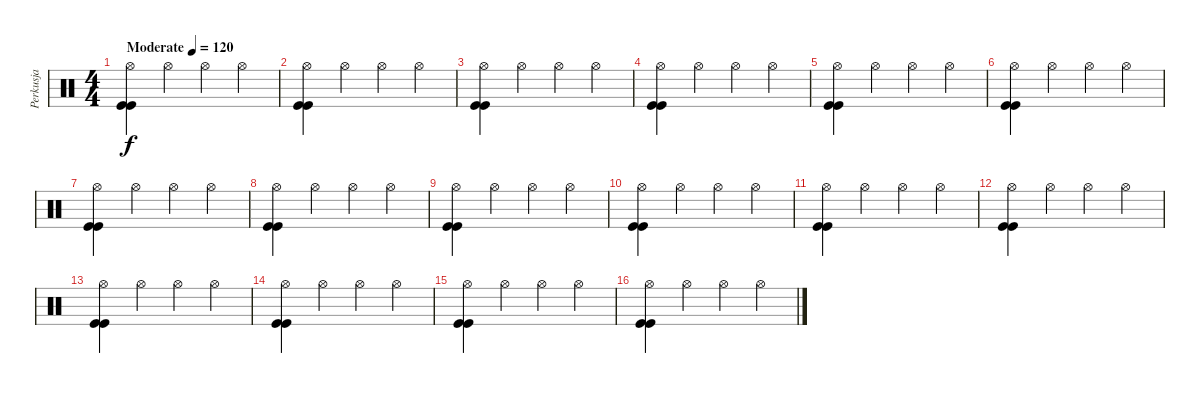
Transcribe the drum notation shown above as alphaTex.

\track ("Perkusja" "Perkusja") {instrument percussion}
\staff
\articulation defaults
\ts (4 4)
\tempo (120 "Moderate")
\clef neutral
\ks c
("Hi-Hat (open)" "Kick (hit)" "Kick (hit)").4{dy f} "Hi-Hat (open)".4 "Hi-Hat (open)".4 "Hi-Hat (open)".4 |
("Hi-Hat (open)" "Kick (hit)" "Kick (hit)").4 "Hi-Hat (open)".4 "Hi-Hat (open)".4 "Hi-Hat (open)".4 |
("Hi-Hat (open)" "Kick (hit)" "Kick (hit)").4 "Hi-Hat (open)".4 "Hi-Hat (open)".4 "Hi-Hat (open)".4 |
("Hi-Hat (open)" "Kick (hit)" "Kick (hit)").4 "Hi-Hat (open)".4 "Hi-Hat (open)".4 "Hi-Hat (open)".4 |
("Hi-Hat (open)" "Kick (hit)" "Kick (hit)").4 "Hi-Hat (open)".4 "Hi-Hat (open)".4 "Hi-Hat (open)".4 |
("Hi-Hat (open)" "Kick (hit)" "Kick (hit)").4 "Hi-Hat (open)".4 "Hi-Hat (open)".4 "Hi-Hat (open)".4 |
("Hi-Hat (open)" "Kick (hit)" "Kick (hit)").4 "Hi-Hat (open)".4 "Hi-Hat (open)".4 "Hi-Hat (open)".4 |
("Hi-Hat (open)" "Kick (hit)" "Kick (hit)").4 "Hi-Hat (open)".4 "Hi-Hat (open)".4 "Hi-Hat (open)".4 |
("Hi-Hat (open)" "Kick (hit)" "Kick (hit)").4 "Hi-Hat (open)".4 "Hi-Hat (open)".4 "Hi-Hat (open)".4 |
("Hi-Hat (open)" "Kick (hit)" "Kick (hit)").4 "Hi-Hat (open)".4 "Hi-Hat (open)".4 "Hi-Hat (open)".4 |
("Hi-Hat (open)" "Kick (hit)" "Kick (hit)").4 "Hi-Hat (open)".4 "Hi-Hat (open)".4 "Hi-Hat (open)".4 |
("Hi-Hat (open)" "Kick (hit)" "Kick (hit)").4 "Hi-Hat (open)".4 "Hi-Hat (open)".4 "Hi-Hat (open)".4 |
("Hi-Hat (open)" "Kick (hit)" "Kick (hit)").4 "Hi-Hat (open)".4 "Hi-Hat (open)".4 "Hi-Hat (open)".4 |
("Hi-Hat (open)" "Kick (hit)" "Kick (hit)").4 "Hi-Hat (open)".4 "Hi-Hat (open)".4 "Hi-Hat (open)".4 |
("Hi-Hat (open)" "Kick (hit)" "Kick (hit)").4 "Hi-Hat (open)".4 "Hi-Hat (open)".4 "Hi-Hat (open)".4 |
("Hi-Hat (open)" "Kick (hit)" "Kick (hit)").4 "Hi-Hat (open)".4 "Hi-Hat (open)".4 "Hi-Hat (open)".4
